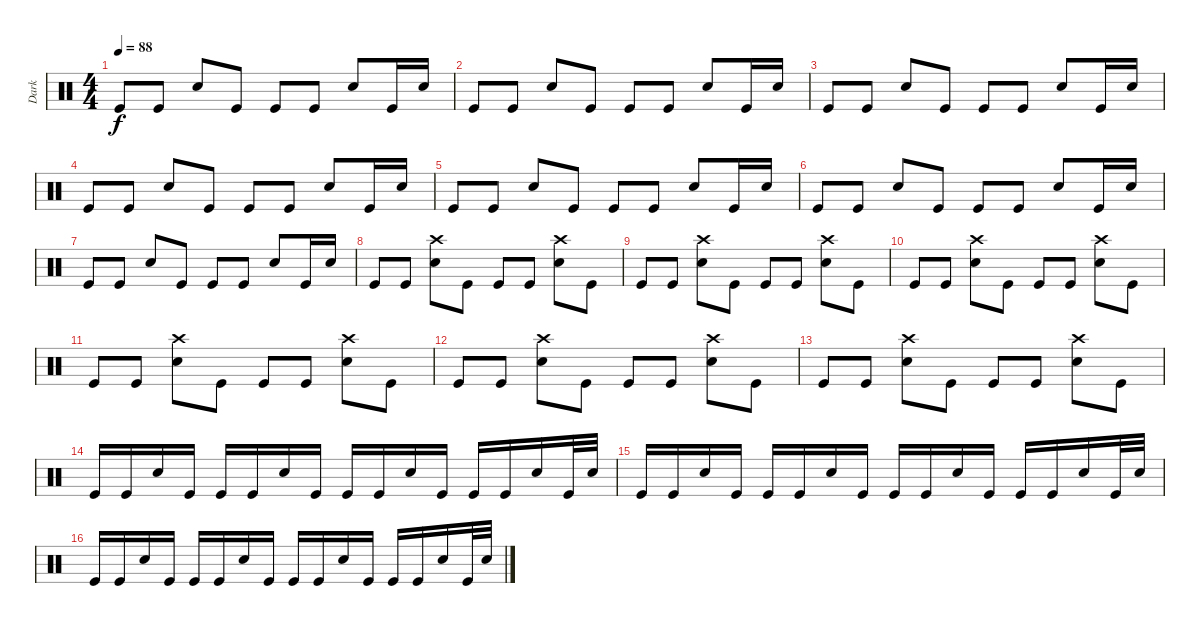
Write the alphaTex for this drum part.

\track ("Dark " "Dark ") {instrument percussion}
\staff {score}
\articulation defaults
\ts (4 4)
\tempo 88
\clef neutral
\ks c "Kick (hit)".8{dy f} "Kick (hit)".8 "Snare (hit) 2".8 "Kick (hit)".8 "Kick (hit)".8 "Kick (hit)".8 "Snare (hit) 2".8 "Kick (hit)".16 "Snare (hit) 2".16
|
"Kick (hit)".8 "Kick (hit)".8 "Snare (hit) 2".8 "Kick (hit)".8 "Kick (hit)".8 "Kick (hit)".8 "Snare (hit) 2".8 "Kick (hit)".16 "Snare (hit) 2".16 |
"Kick (hit)".8 "Kick (hit)".8 "Snare (hit) 2".8 "Kick (hit)".8 "Kick (hit)".8 "Kick (hit)".8 "Snare (hit) 2".8 "Kick (hit)".16 "Snare (hit) 2".16 |
"Kick (hit)".8 "Kick (hit)".8 "Snare (hit) 2".8 "Kick (hit)".8 "Kick (hit)".8 "Kick (hit)".8 "Snare (hit) 2".8 "Kick (hit)".16 "Snare (hit) 2".16 |
"Kick (hit)".8 "Kick (hit)".8 "Snare (hit) 2".8 "Kick (hit)".8 "Kick (hit)".8 "Kick (hit)".8 "Snare (hit) 2".8 "Kick (hit)".16 "Snare (hit) 2".16 |
"Kick (hit)".8 "Kick (hit)".8 "Snare (hit) 2".8 "Kick (hit)".8 "Kick (hit)".8 "Kick (hit)".8 "Snare (hit) 2".8 "Kick (hit)".16 "Snare (hit) 2".16 |
"Kick (hit)".8 "Kick (hit)".8 "Snare (hit) 2".8 "Kick (hit)".8 "Kick (hit)".8 "Kick (hit)".8 "Snare (hit) 2".8 "Kick (hit)".16 "Snare (hit) 2".16 |
"Kick (hit)".8 "Kick (hit)".8 ("Crash high (hit)" "Snare (hit) 2").8 "Kick (hit)".8 "Kick (hit)".8 "Kick (hit)".8 ("Crash high (hit)" "Snare (hit) 2").8 "Kick (hit)".8 |
"Kick (hit)".8 "Kick (hit)".8 ("Crash high (hit)" "Snare (hit) 2").8 "Kick (hit)".8 "Kick (hit)".8 "Kick (hit)".8 ("Crash high (hit)" "Snare (hit) 2").8 "Kick (hit)".8 |
"Kick (hit)".8 "Kick (hit)".8 ("Crash high (hit)" "Snare (hit) 2").8 "Kick (hit)".8 "Kick (hit)".8 "Kick (hit)".8 ("Crash high (hit)" "Snare (hit) 2").8 "Kick (hit)".8 |
"Kick (hit)".8 "Kick (hit)".8 ("Crash high (hit)" "Snare (hit) 2").8 "Kick (hit)".8 "Kick (hit)".8 "Kick (hit)".8 ("Crash high (hit)" "Snare (hit) 2").8 "Kick (hit)".8 |
"Kick (hit)".8 "Kick (hit)".8 ("Crash high (hit)" "Snare (hit) 2").8 "Kick (hit)".8 "Kick (hit)".8 "Kick (hit)".8 ("Crash high (hit)" "Snare (hit) 2").8 "Kick (hit)".8 |
"Kick (hit)".8 "Kick (hit)".8 ("Crash high (hit)" "Snare (hit) 2").8 "Kick (hit)".8 "Kick (hit)".8 "Kick (hit)".8 ("Crash high (hit)" "Snare (hit) 2").8 "Kick (hit)".8 |
"Kick (hit)".16 "Kick (hit)".16 "Snare (hit) 2".16 "Kick (hit)".16 "Kick (hit)".16 "Kick (hit)".16 "Snare (hit) 2".16 "Kick (hit)".16 "Kick (hit)".16 "Kick (hit)".16 "Snare (hit) 2".16 "Kick (hit)".16 "Kick (hit)".16 "Kick (hit)".16 "Snare (hit) 2".16 "Kick (hit)".32 "Snare (hit) 2".32 |
"Kick (hit)".16 "Kick (hit)".16 "Snare (hit) 2".16 "Kick (hit)".16 "Kick (hit)".16 "Kick (hit)".16 "Snare (hit) 2".16 "Kick (hit)".16 "Kick (hit)".16 "Kick (hit)".16 "Snare (hit) 2".16 "Kick (hit)".16 "Kick (hit)".16 "Kick (hit)".16 "Snare (hit) 2".16 "Kick (hit)".32 "Snare (hit) 2".32 |
"Kick (hit)".16 "Kick (hit)".16 "Snare (hit) 2".16 "Kick (hit)".16 "Kick (hit)".16 "Kick (hit)".16 "Snare (hit) 2".16 "Kick (hit)".16 "Kick (hit)".16 "Kick (hit)".16 "Snare (hit) 2".16 "Kick (hit)".16 "Kick (hit)".16 "Kick (hit)".16 "Snare (hit) 2".16 "Kick (hit)".32 "Snare (hit) 2".32
